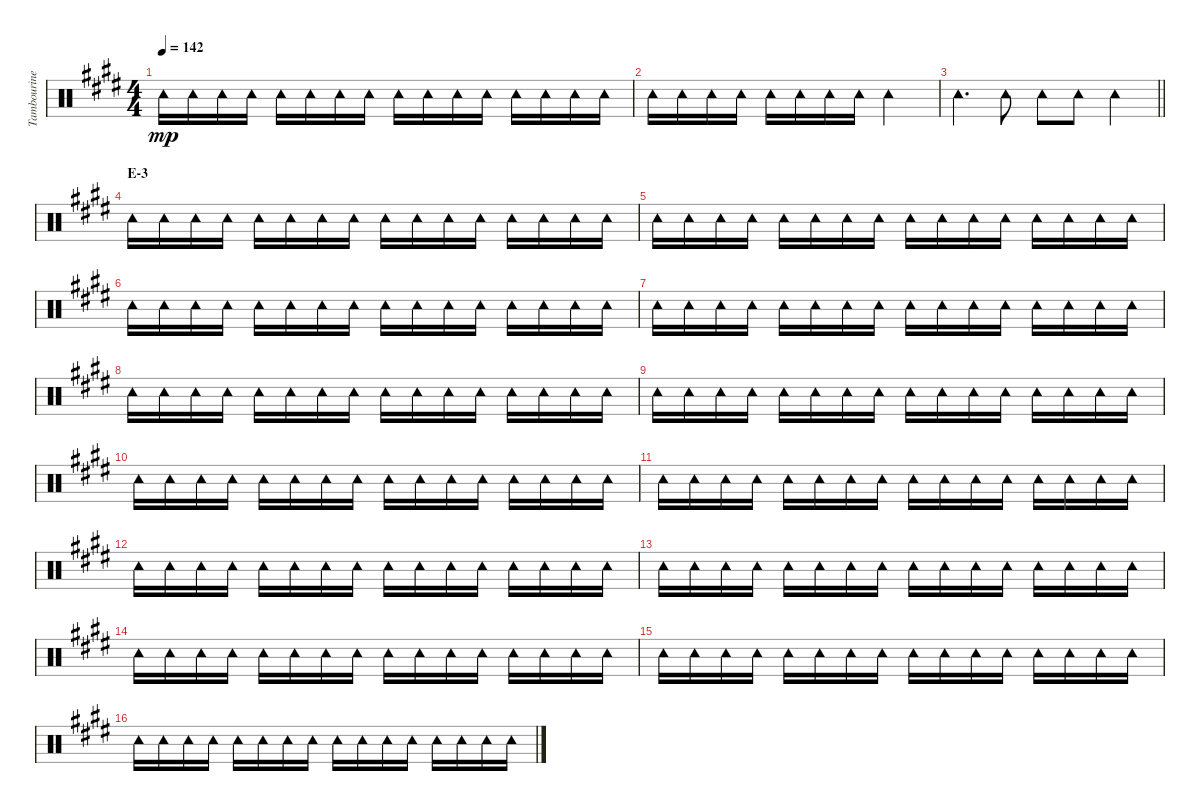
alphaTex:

\track ("Tambourine" "Tambourine") {instrument percussion}
\staff {score}
\articulation defaults
\ts (4 4)
\tempo 142
\clef neutral
\ks e "Tambourine (hit)".16{dy mp} "Tambourine (hit)".16 "Tambourine (hit)".16 "Tambourine (hit)".16 "Tambourine (hit)".16 "Tambourine (hit)".16 "Tambourine (hit)".16 "Tambourine (hit)".16 "Tambourine (hit)".16 "Tambourine (hit)".16 "Tambourine (hit)".16 "Tambourine (hit)".16 "Tambourine (hit)".16 "Tambourine (hit)".16 "Tambourine (hit)".16 "Tambourine (hit)".16
|
"Tambourine (hit)".16 "Tambourine (hit)".16 "Tambourine (hit)".16 "Tambourine (hit)".16 "Tambourine (hit)".16 "Tambourine (hit)".16 "Tambourine (hit)".16 "Tambourine (hit)".16 "Tambourine (hit)".2 |
\barLineRight lightlight "Tambourine (hit)".4{d} "Tambourine (hit)".8 "Tambourine (hit)".8 "Tambourine (hit)".8 "Tambourine (hit)".4
|
\section ("" "E-3")
"Tambourine (hit)".16 "Tambourine (hit)".16 "Tambourine (hit)".16 "Tambourine (hit)".16 "Tambourine (hit)".16 "Tambourine (hit)".16 "Tambourine (hit)".16 "Tambourine (hit)".16 "Tambourine (hit)".16 "Tambourine (hit)".16 "Tambourine (hit)".16 "Tambourine (hit)".16 "Tambourine (hit)".16 "Tambourine (hit)".16 "Tambourine (hit)".16 "Tambourine (hit)".16 |
"Tambourine (hit)".16 "Tambourine (hit)".16 "Tambourine (hit)".16 "Tambourine (hit)".16 "Tambourine (hit)".16 "Tambourine (hit)".16 "Tambourine (hit)".16 "Tambourine (hit)".16 "Tambourine (hit)".16 "Tambourine (hit)".16 "Tambourine (hit)".16 "Tambourine (hit)".16 "Tambourine (hit)".16 "Tambourine (hit)".16 "Tambourine (hit)".16 "Tambourine (hit)".16 |
"Tambourine (hit)".16 "Tambourine (hit)".16 "Tambourine (hit)".16 "Tambourine (hit)".16 "Tambourine (hit)".16 "Tambourine (hit)".16 "Tambourine (hit)".16 "Tambourine (hit)".16 "Tambourine (hit)".16 "Tambourine (hit)".16 "Tambourine (hit)".16 "Tambourine (hit)".16 "Tambourine (hit)".16 "Tambourine (hit)".16 "Tambourine (hit)".16 "Tambourine (hit)".16 |
"Tambourine (hit)".16 "Tambourine (hit)".16 "Tambourine (hit)".16 "Tambourine (hit)".16 "Tambourine (hit)".16 "Tambourine (hit)".16 "Tambourine (hit)".16 "Tambourine (hit)".16 "Tambourine (hit)".16 "Tambourine (hit)".16 "Tambourine (hit)".16 "Tambourine (hit)".16 "Tambourine (hit)".16 "Tambourine (hit)".16 "Tambourine (hit)".16 "Tambourine (hit)".16 |
"Tambourine (hit)".16 "Tambourine (hit)".16 "Tambourine (hit)".16 "Tambourine (hit)".16 "Tambourine (hit)".16 "Tambourine (hit)".16 "Tambourine (hit)".16 "Tambourine (hit)".16 "Tambourine (hit)".16 "Tambourine (hit)".16 "Tambourine (hit)".16 "Tambourine (hit)".16 "Tambourine (hit)".16 "Tambourine (hit)".16 "Tambourine (hit)".16 "Tambourine (hit)".16 |
"Tambourine (hit)".16 "Tambourine (hit)".16 "Tambourine (hit)".16 "Tambourine (hit)".16 "Tambourine (hit)".16 "Tambourine (hit)".16 "Tambourine (hit)".16 "Tambourine (hit)".16 "Tambourine (hit)".16 "Tambourine (hit)".16 "Tambourine (hit)".16 "Tambourine (hit)".16 "Tambourine (hit)".16 "Tambourine (hit)".16 "Tambourine (hit)".16 "Tambourine (hit)".16 |
"Tambourine (hit)".16 "Tambourine (hit)".16 "Tambourine (hit)".16 "Tambourine (hit)".16 "Tambourine (hit)".16 "Tambourine (hit)".16 "Tambourine (hit)".16 "Tambourine (hit)".16 "Tambourine (hit)".16 "Tambourine (hit)".16 "Tambourine (hit)".16 "Tambourine (hit)".16 "Tambourine (hit)".16 "Tambourine (hit)".16 "Tambourine (hit)".16 "Tambourine (hit)".16 |
"Tambourine (hit)".16 "Tambourine (hit)".16 "Tambourine (hit)".16 "Tambourine (hit)".16 "Tambourine (hit)".16 "Tambourine (hit)".16 "Tambourine (hit)".16 "Tambourine (hit)".16 "Tambourine (hit)".16 "Tambourine (hit)".16 "Tambourine (hit)".16 "Tambourine (hit)".16 "Tambourine (hit)".16 "Tambourine (hit)".16 "Tambourine (hit)".16 "Tambourine (hit)".16 |
"Tambourine (hit)".16 "Tambourine (hit)".16 "Tambourine (hit)".16 "Tambourine (hit)".16 "Tambourine (hit)".16 "Tambourine (hit)".16 "Tambourine (hit)".16 "Tambourine (hit)".16 "Tambourine (hit)".16 "Tambourine (hit)".16 "Tambourine (hit)".16 "Tambourine (hit)".16 "Tambourine (hit)".16 "Tambourine (hit)".16 "Tambourine (hit)".16 "Tambourine (hit)".16 |
"Tambourine (hit)".16 "Tambourine (hit)".16 "Tambourine (hit)".16 "Tambourine (hit)".16 "Tambourine (hit)".16 "Tambourine (hit)".16 "Tambourine (hit)".16 "Tambourine (hit)".16 "Tambourine (hit)".16 "Tambourine (hit)".16 "Tambourine (hit)".16 "Tambourine (hit)".16 "Tambourine (hit)".16 "Tambourine (hit)".16 "Tambourine (hit)".16 "Tambourine (hit)".16 |
"Tambourine (hit)".16 "Tambourine (hit)".16 "Tambourine (hit)".16 "Tambourine (hit)".16 "Tambourine (hit)".16 "Tambourine (hit)".16 "Tambourine (hit)".16 "Tambourine (hit)".16 "Tambourine (hit)".16 "Tambourine (hit)".16 "Tambourine (hit)".16 "Tambourine (hit)".16 "Tambourine (hit)".16 "Tambourine (hit)".16 "Tambourine (hit)".16 "Tambourine (hit)".16 |
"Tambourine (hit)".16 "Tambourine (hit)".16 "Tambourine (hit)".16 "Tambourine (hit)".16 "Tambourine (hit)".16 "Tambourine (hit)".16 "Tambourine (hit)".16 "Tambourine (hit)".16 "Tambourine (hit)".16 "Tambourine (hit)".16 "Tambourine (hit)".16 "Tambourine (hit)".16 "Tambourine (hit)".16 "Tambourine (hit)".16 "Tambourine (hit)".16 "Tambourine (hit)".16 |
"Tambourine (hit)".16 "Tambourine (hit)".16 "Tambourine (hit)".16 "Tambourine (hit)".16 "Tambourine (hit)".16 "Tambourine (hit)".16 "Tambourine (hit)".16 "Tambourine (hit)".16 "Tambourine (hit)".16 "Tambourine (hit)".16 "Tambourine (hit)".16 "Tambourine (hit)".16 "Tambourine (hit)".16 "Tambourine (hit)".16 "Tambourine (hit)".16 "Tambourine (hit)".16
